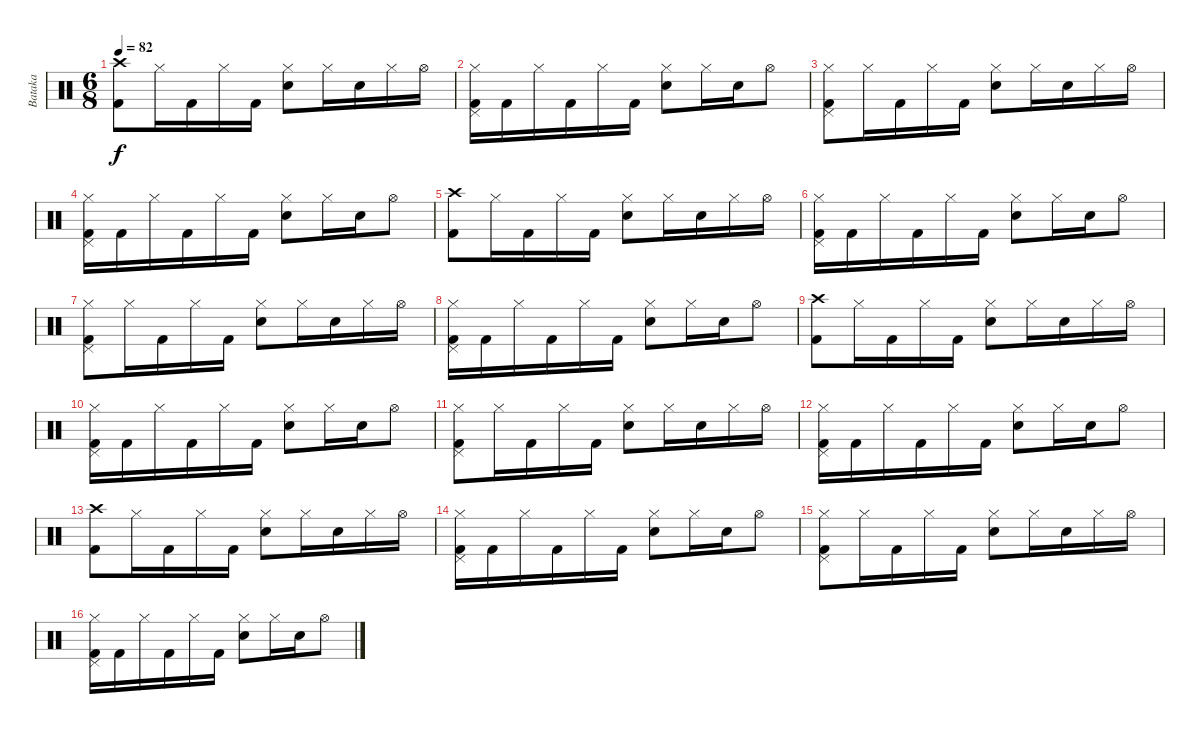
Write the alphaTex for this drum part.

\track ("Bataka" "Bataka") {instrument percussion}
\staff {score}
\articulation defaults
\ts (6 8)
\tempo 82
\clef neutral
\ks c
("Crash high (hit)" "Kick (hit) 2").8{dy f} "Hi-Hat (closed)".16 "Kick (hit) 2".16 "Hi-Hat (closed)".16 "Kick (hit) 2".16 ("Hi-Hat (closed)" "Snare (hit) 2").8 "Hi-Hat (closed)".16 "Snare (hit) 2".16 "Hi-Hat (closed)".16 "Hi-Hat (open)".16 |
("Hi-Hat (closed)" "Pedal Hi-Hat (hit)" "Kick (hit) 2").16 "Kick (hit) 2".16 "Hi-Hat (closed)".16 "Kick (hit) 2".16 "Hi-Hat (closed)".16 "Kick (hit) 2".16 ("Hi-Hat (closed)" "Snare (hit) 2").8 "Hi-Hat (closed)".16 "Snare (hit) 2".16 "Hi-Hat (open)".8 |
("Hi-Hat (closed)" "Pedal Hi-Hat (hit)" "Kick (hit) 2").8 "Hi-Hat (closed)".16 "Kick (hit) 2".16 "Hi-Hat (closed)".16 "Kick (hit) 2".16 ("Hi-Hat (closed)" "Snare (hit) 2").8 "Hi-Hat (closed)".16 "Snare (hit) 2".16 "Hi-Hat (closed)".16 "Hi-Hat (open)".16 |
("Hi-Hat (closed)" "Pedal Hi-Hat (hit)" "Kick (hit) 2").16 "Kick (hit) 2".16 "Hi-Hat (closed)".16 "Kick (hit) 2".16 "Hi-Hat (closed)".16 "Kick (hit) 2".16 ("Hi-Hat (closed)" "Snare (hit) 2").8 "Hi-Hat (closed)".16 "Snare (hit) 2".16 "Hi-Hat (open)".8 |
("Crash high (hit)" "Kick (hit) 2").8 "Hi-Hat (closed)".16 "Kick (hit) 2".16 "Hi-Hat (closed)".16 "Kick (hit) 2".16 ("Hi-Hat (closed)" "Snare (hit) 2").8 "Hi-Hat (closed)".16 "Snare (hit) 2".16 "Hi-Hat (closed)".16 "Hi-Hat (open)".16 |
("Hi-Hat (closed)" "Pedal Hi-Hat (hit)" "Kick (hit) 2").16 "Kick (hit) 2".16 "Hi-Hat (closed)".16 "Kick (hit) 2".16 "Hi-Hat (closed)".16 "Kick (hit) 2".16 ("Hi-Hat (closed)" "Snare (hit) 2").8 "Hi-Hat (closed)".16 "Snare (hit) 2".16 "Hi-Hat (open)".8 |
("Hi-Hat (closed)" "Pedal Hi-Hat (hit)" "Kick (hit) 2").8 "Hi-Hat (closed)".16 "Kick (hit) 2".16 "Hi-Hat (closed)".16 "Kick (hit) 2".16 ("Hi-Hat (closed)" "Snare (hit) 2").8 "Hi-Hat (closed)".16 "Snare (hit) 2".16 "Hi-Hat (closed)".16 "Hi-Hat (open)".16 |
("Hi-Hat (closed)" "Pedal Hi-Hat (hit)" "Kick (hit) 2").16 "Kick (hit) 2".16 "Hi-Hat (closed)".16 "Kick (hit) 2".16 "Hi-Hat (closed)".16 "Kick (hit) 2".16 ("Hi-Hat (closed)" "Snare (hit) 2").8 "Hi-Hat (closed)".16 "Snare (hit) 2".16 "Hi-Hat (open)".8 |
("Crash high (hit)" "Kick (hit) 2").8 "Hi-Hat (closed)".16 "Kick (hit) 2".16 "Hi-Hat (closed)".16 "Kick (hit) 2".16 ("Hi-Hat (closed)" "Snare (hit) 2").8 "Hi-Hat (closed)".16 "Snare (hit) 2".16 "Hi-Hat (closed)".16 "Hi-Hat (open)".16 |
("Hi-Hat (closed)" "Pedal Hi-Hat (hit)" "Kick (hit) 2").16 "Kick (hit) 2".16 "Hi-Hat (closed)".16 "Kick (hit) 2".16 "Hi-Hat (closed)".16 "Kick (hit) 2".16 ("Hi-Hat (closed)" "Snare (hit) 2").8 "Hi-Hat (closed)".16 "Snare (hit) 2".16 "Hi-Hat (open)".8 |
("Hi-Hat (closed)" "Pedal Hi-Hat (hit)" "Kick (hit) 2").8 "Hi-Hat (closed)".16 "Kick (hit) 2".16 "Hi-Hat (closed)".16 "Kick (hit) 2".16 ("Hi-Hat (closed)" "Snare (hit) 2").8 "Hi-Hat (closed)".16 "Snare (hit) 2".16 "Hi-Hat (closed)".16 "Hi-Hat (open)".16 |
("Hi-Hat (closed)" "Pedal Hi-Hat (hit)" "Kick (hit) 2").16 "Kick (hit) 2".16 "Hi-Hat (closed)".16 "Kick (hit) 2".16 "Hi-Hat (closed)".16 "Kick (hit) 2".16 ("Hi-Hat (closed)" "Snare (hit) 2").8 "Hi-Hat (closed)".16 "Snare (hit) 2".16 "Hi-Hat (open)".8 |
("Crash high (hit)" "Kick (hit) 2").8 "Hi-Hat (closed)".16 "Kick (hit) 2".16 "Hi-Hat (closed)".16 "Kick (hit) 2".16 ("Hi-Hat (closed)" "Snare (hit) 2").8 "Hi-Hat (closed)".16 "Snare (hit) 2".16 "Hi-Hat (closed)".16 "Hi-Hat (open)".16 |
("Hi-Hat (closed)" "Pedal Hi-Hat (hit)" "Kick (hit) 2").16{volume 10} "Kick (hit) 2".16 "Hi-Hat (closed)".16 "Kick (hit) 2".16 "Hi-Hat (closed)".16 "Kick (hit) 2".16 ("Hi-Hat (closed)" "Snare (hit) 2").8 "Hi-Hat (closed)".16 "Snare (hit) 2".16 "Hi-Hat (open)".8 |
("Hi-Hat (closed)" "Pedal Hi-Hat (hit)" "Kick (hit) 2").8 "Hi-Hat (closed)".16 "Kick (hit) 2".16 "Hi-Hat (closed)".16 "Kick (hit) 2".16 ("Hi-Hat (closed)" "Snare (hit) 2").8 "Hi-Hat (closed)".16 "Snare (hit) 2".16 "Hi-Hat (closed)".16 "Hi-Hat (open)".16 |
("Hi-Hat (closed)" "Pedal Hi-Hat (hit)" "Kick (hit) 2").16 "Kick (hit) 2".16 "Hi-Hat (closed)".16 "Kick (hit) 2".16 "Hi-Hat (closed)".16 "Kick (hit) 2".16 ("Hi-Hat (closed)" "Snare (hit) 2").8 "Hi-Hat (closed)".16 "Snare (hit) 2".16 "Hi-Hat (open)".8
